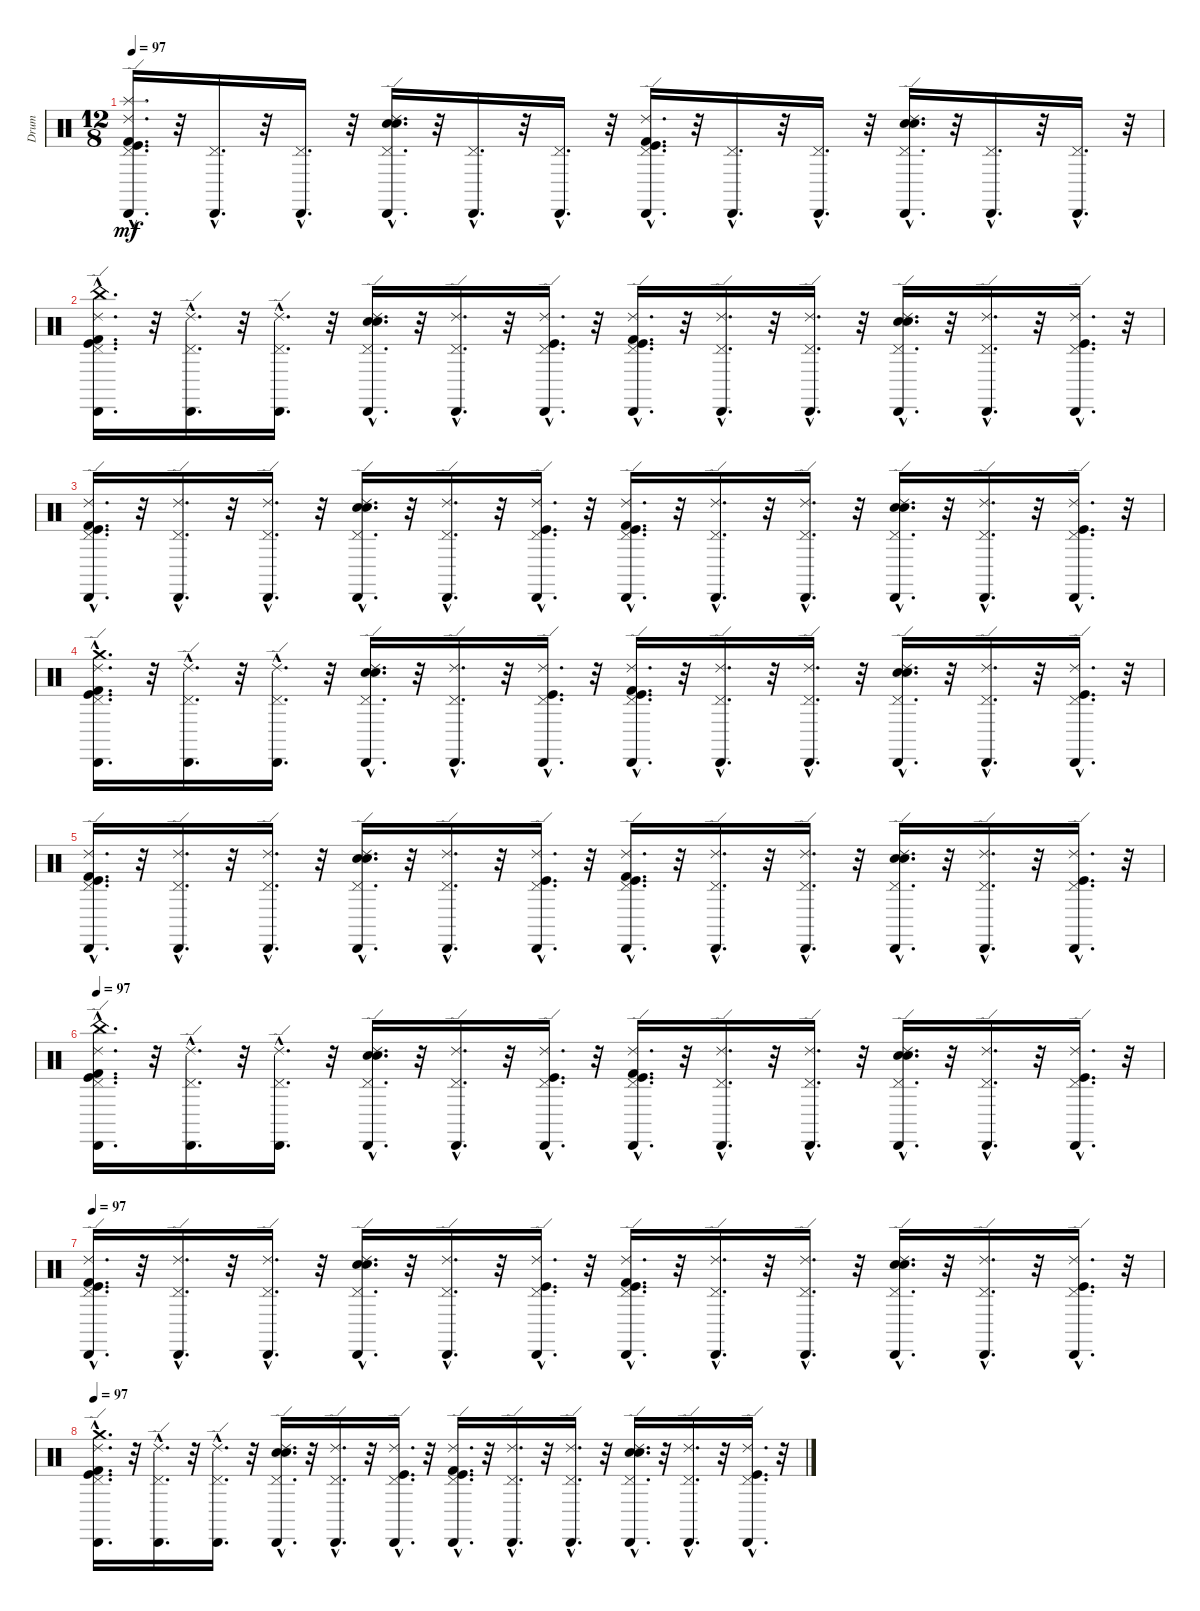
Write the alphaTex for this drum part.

\track ("Drum" "Drum") {instrument percussion}
\staff {score}
\articulation defaults
\ts (12 8)
\tempo 97
\clef neutral
\ks c
("Splash (hit)"{hac} "Pedal Hi-Hat (hit)"{hac} "Kick (hit)"{hac} "Cabasa (hit)"{hac} "Ride (edge) 2"{hac} "Kick (hit) 2"{hac}).16{d dy mf} r.32 ("Pedal Hi-Hat (hit)"{hac} "Cabasa (hit)"{hac}).16{d} r.32 ("Pedal Hi-Hat (hit)"{hac} "Cabasa (hit)"{hac}).16{d} r.32 ("Pedal Hi-Hat (hit)"{hac} "Snare (hit) 2"{hac} "Electric Snare (hit)"{hac} "Cabasa (hit)"{hac} "Ride (edge) 2"{hac}).16{d} r.32 ("Pedal Hi-Hat (hit)"{hac} "Cabasa (hit)"{hac}).16{d} r.32 ("Pedal Hi-Hat (hit)"{hac} "Cabasa (hit)"{hac}).16{d} r.32 ("Pedal Hi-Hat (hit)"{hac} "Kick (hit)"{hac} "Cabasa (hit)"{hac} "Ride (edge) 2"{hac} "Kick (hit) 2"{hac}).16{d} r.32 ("Pedal Hi-Hat (hit)"{hac} "Cabasa (hit)"{hac}).16{d} r.32 ("Pedal Hi-Hat (hit)"{hac} "Cabasa (hit)"{hac}).16{d} r.32 ("Pedal Hi-Hat (hit)"{hac} "Snare (hit) 2"{hac} "Electric Snare (hit)"{hac} "Cabasa (hit)"{hac} "Ride (edge) 2"{hac}).16{d} r.32 ("Pedal Hi-Hat (hit)"{hac} "Cabasa (hit)"{hac}).16{d} r.32 ("Pedal Hi-Hat (hit)"{hac} "Cabasa (hit)"{hac}).16{d} r.32 |
("Pedal Hi-Hat (hit)"{hac} "Kick (hit) 2"{hac} "Ride (edge) 2"{hac} "Cabasa (hit)"{hac} "Kick (hit)"{hac} "China (hit)"{hac}).16{d} r.32 ("Ride (edge) 2"{hac} "Cabasa (hit)"{hac} "Pedal Hi-Hat (hit)"{hac}).16{d} r.32 ("Cabasa (hit)"{hac} "Ride (edge) 2"{hac} "Pedal Hi-Hat (hit)"{hac}).16{d} r.32 ("Electric Snare (hit)"{hac} "Snare (hit) 2"{hac} "Cabasa (hit)"{hac} "Pedal Hi-Hat (hit)"{hac} "Ride (edge) 2"{hac}).16{d} r.32 ("Pedal Hi-Hat (hit)"{hac} "Ride (edge) 2"{hac} "Cabasa (hit)"{hac}).16{d} r.32 ("Cabasa (hit)"{hac} "Pedal Hi-Hat (hit)"{hac} "Ride (edge) 2"{hac} "Kick (hit)"{hac}).16{d} r.32 ("Cabasa (hit)"{hac} "Ride (edge) 2"{hac} "Kick (hit)"{hac} "Kick (hit) 2"{hac} "Pedal Hi-Hat (hit)"{hac}).16{d} r.32 ("Cabasa (hit)"{hac} "Ride (edge) 2"{hac} "Pedal Hi-Hat (hit)"{hac}).16{d} r.32 ("Cabasa (hit)"{hac} "Pedal Hi-Hat (hit)"{hac} "Ride (edge) 2"{hac}).16{d} r.32 ("Pedal Hi-Hat (hit)"{hac} "Snare (hit) 2"{hac} "Electric Snare (hit)"{hac} "Ride (edge) 2"{hac} "Cabasa (hit)"{hac}).16{d} r.32 ("Cabasa (hit)"{hac} "Pedal Hi-Hat (hit)"{hac} "Ride (edge) 2"{hac}).16{d} r.32 ("Ride (edge) 2"{hac} "Cabasa (hit)"{hac} "Pedal Hi-Hat (hit)"{hac} "Kick (hit)"{hac}).16{d} r.32 |
("Pedal Hi-Hat (hit)"{hac} "Kick (hit) 2"{hac} "Cabasa (hit)"{hac} "Kick (hit)"{hac} "Ride (edge) 2"{hac}).16{d} r.32 ("Pedal Hi-Hat (hit)"{hac} "Cabasa (hit)"{hac} "Ride (edge) 2"{hac}).16{d} r.32 ("Ride (edge) 2"{hac} "Cabasa (hit)"{hac} "Pedal Hi-Hat (hit)"{hac}).16{d} r.32 ("Electric Snare (hit)"{hac} "Cabasa (hit)"{hac} "Snare (hit) 2"{hac} "Ride (edge) 2"{hac} "Pedal Hi-Hat (hit)"{hac}).16{d} r.32 ("Pedal Hi-Hat (hit)"{hac} "Cabasa (hit)"{hac} "Ride (edge) 2"{hac}).16{d} r.32 ("Pedal Hi-Hat (hit)"{hac} "Ride (edge) 2"{hac} "Cabasa (hit)"{hac} "Kick (hit)"{hac}).16{d} r.32 ("Kick (hit)"{hac} "Cabasa (hit)"{hac} "Ride (edge) 2"{hac} "Pedal Hi-Hat (hit)"{hac} "Kick (hit) 2"{hac}).16{d} r.32 ("Pedal Hi-Hat (hit)"{hac} "Cabasa (hit)"{hac} "Ride (edge) 2"{hac}).16{d} r.32 ("Ride (edge) 2"{hac} "Pedal Hi-Hat (hit)"{hac} "Cabasa (hit)"{hac}).16{d} r.32 ("Cabasa (hit)"{hac} "Snare (hit) 2"{hac} "Electric Snare (hit)"{hac} "Pedal Hi-Hat (hit)"{hac} "Ride (edge) 2"{hac}).16{d} r.32 ("Ride (edge) 2"{hac} "Pedal Hi-Hat (hit)"{hac} "Cabasa (hit)"{hac}).16{d} r.32 ("Cabasa (hit)"{hac} "Pedal Hi-Hat (hit)"{hac} "Ride (edge) 2"{hac} "Kick (hit)"{hac}).16{d} r.32 |
("Kick (hit)"{hac} "Pedal Hi-Hat (hit)"{hac} "Kick (hit) 2"{hac} "Crash medium (hit)"{hac} "Ride (edge) 2"{hac} "Cabasa (hit)"{hac}).16{d} r.32 ("Ride (edge) 2"{hac} "Pedal Hi-Hat (hit)"{hac} "Cabasa (hit)"{hac}).16{d} r.32 ("Pedal Hi-Hat (hit)"{hac} "Ride (edge) 2"{hac} "Cabasa (hit)"{hac}).16{d} r.32 ("Pedal Hi-Hat (hit)"{hac} "Ride (edge) 2"{hac} "Snare (hit) 2"{hac} "Cabasa (hit)"{hac} "Electric Snare (hit)"{hac}).16{d} r.32 ("Ride (edge) 2"{hac} "Pedal Hi-Hat (hit)"{hac} "Cabasa (hit)"{hac}).16{d} r.32 ("Ride (edge) 2"{hac} "Cabasa (hit)"{hac} "Pedal Hi-Hat (hit)"{hac} "Kick (hit)"{hac}).16{d} r.32 ("Kick (hit) 2"{hac} "Cabasa (hit)"{hac} "Kick (hit)"{hac} "Pedal Hi-Hat (hit)"{hac} "Ride (edge) 2"{hac}).16{d} r.32 ("Pedal Hi-Hat (hit)"{hac} "Ride (edge) 2"{hac} "Cabasa (hit)"{hac}).16{d} r.32 ("Pedal Hi-Hat (hit)"{hac} "Cabasa (hit)"{hac} "Ride (edge) 2"{hac}).16{d} r.32 ("Ride (edge) 2"{hac} "Cabasa (hit)"{hac} "Electric Snare (hit)"{hac} "Snare (hit) 2"{hac} "Pedal Hi-Hat (hit)"{hac}).16{d} r.32 ("Cabasa (hit)"{hac} "Pedal Hi-Hat (hit)"{hac} "Ride (edge) 2"{hac}).16{d} r.32 ("Cabasa (hit)"{hac} "Pedal Hi-Hat (hit)"{hac} "Ride (edge) 2"{hac} "Kick (hit)"{hac}).16{d} r.32 |
("Ride (edge) 2"{hac} "Kick (hit)"{hac} "Pedal Hi-Hat (hit)"{hac} "Cabasa (hit)"{hac} "Kick (hit) 2"{hac}).16{d} r.32 ("Pedal Hi-Hat (hit)"{hac} "Ride (edge) 2"{hac} "Cabasa (hit)"{hac}).16{d} r.32 ("Pedal Hi-Hat (hit)"{hac} "Cabasa (hit)"{hac} "Ride (edge) 2"{hac}).16{d} r.32 ("Snare (hit) 2"{hac} "Electric Snare (hit)"{hac} "Cabasa (hit)"{hac} "Ride (edge) 2"{hac} "Pedal Hi-Hat (hit)"{hac}).16{d} r.32 ("Pedal Hi-Hat (hit)"{hac} "Ride (edge) 2"{hac} "Cabasa (hit)"{hac}).16{d} r.32 ("Cabasa (hit)"{hac} "Kick (hit)"{hac} "Pedal Hi-Hat (hit)"{hac} "Ride (edge) 2"{hac}).16{d} r.32 ("Pedal Hi-Hat (hit)"{hac} "Cabasa (hit)"{hac} "Ride (edge) 2"{hac} "Kick (hit)"{hac} "Kick (hit) 2"{hac}).16{d} r.32 ("Pedal Hi-Hat (hit)"{hac} "Ride (edge) 2"{hac} "Cabasa (hit)"{hac}).16{d} r.32 ("Cabasa (hit)"{hac} "Pedal Hi-Hat (hit)"{hac} "Ride (edge) 2"{hac}).16{d} r.32 ("Electric Snare (hit)"{hac} "Snare (hit) 2"{hac} "Cabasa (hit)"{hac} "Ride (edge) 2"{hac} "Pedal Hi-Hat (hit)"{hac}).16{d} r.32 ("Cabasa (hit)"{hac} "Pedal Hi-Hat (hit)"{hac} "Ride (edge) 2"{hac}).16{d} r.32 ("Pedal Hi-Hat (hit)"{hac} "Cabasa (hit)"{hac} "Kick (hit)"{hac} "Ride (edge) 2"{hac}).16{d} r.32 |
\tempo 97
("Kick (hit)"{hac} "Pedal Hi-Hat (hit)"{hac} "Cabasa (hit)"{hac} "Ride (edge) 2"{hac} "Kick (hit) 2"{hac} "China (hit)"{hac}).16{d} r.32 ("Cabasa (hit)"{hac} "Pedal Hi-Hat (hit)"{hac} "Ride (edge) 2"{hac}).16{d} r.32 ("Pedal Hi-Hat (hit)"{hac} "Cabasa (hit)"{hac} "Ride (edge) 2"{hac}).16{d} r.32 ("Pedal Hi-Hat (hit)"{hac} "Electric Snare (hit)"{hac} "Snare (hit) 2"{hac} "Cabasa (hit)"{hac} "Ride (edge) 2"{hac}).16{d} r.32 ("Cabasa (hit)"{hac} "Pedal Hi-Hat (hit)"{hac} "Ride (edge) 2"{hac}).16{d} r.32 ("Cabasa (hit)"{hac} "Pedal Hi-Hat (hit)"{hac} "Ride (edge) 2"{hac} "Kick (hit)"{hac}).16{d} r.32 ("Kick (hit) 2"{hac} "Kick (hit)"{hac} "Ride (edge) 2"{hac} "Pedal Hi-Hat (hit)"{hac} "Cabasa (hit)"{hac}).16{d} r.32 ("Cabasa (hit)"{hac} "Pedal Hi-Hat (hit)"{hac} "Ride (edge) 2"{hac}).16{d} r.32 ("Cabasa (hit)"{hac} "Pedal Hi-Hat (hit)"{hac} "Ride (edge) 2"{hac}).16{d} r.32 ("Ride (edge) 2"{hac} "Cabasa (hit)"{hac} "Pedal Hi-Hat (hit)"{hac} "Electric Snare (hit)"{hac} "Snare (hit) 2"{hac}).16{d} r.32 ("Cabasa (hit)"{hac} "Pedal Hi-Hat (hit)"{hac} "Ride (edge) 2"{hac}).16{d} r.32 ("Cabasa (hit)"{hac} "Pedal Hi-Hat (hit)"{hac} "Ride (edge) 2"{hac} "Kick (hit)"{hac}).16{d} r.32 |
\tempo 97
("Kick (hit) 2"{hac} "Ride (edge) 2"{hac} "Cabasa (hit)"{hac} "Pedal Hi-Hat (hit)"{hac} "Kick (hit)"{hac}).16{d} r.32 ("Ride (edge) 2"{hac} "Pedal Hi-Hat (hit)"{hac} "Cabasa (hit)"{hac}).16{d} r.32 ("Ride (edge) 2"{hac} "Cabasa (hit)"{hac} "Pedal Hi-Hat (hit)"{hac}).16{d} r.32 ("Ride (edge) 2"{hac} "Cabasa (hit)"{hac} "Snare (hit) 2"{hac} "Electric Snare (hit)"{hac} "Pedal Hi-Hat (hit)"{hac}).16{d} r.32 ("Ride (edge) 2"{hac} "Pedal Hi-Hat (hit)"{hac} "Cabasa (hit)"{hac}).16{d} r.32 ("Ride (edge) 2"{hac} "Pedal Hi-Hat (hit)"{hac} "Cabasa (hit)"{hac} "Kick (hit)"{hac}).16{d} r.32 ("Cabasa (hit)"{hac} "Pedal Hi-Hat (hit)"{hac} "Ride (edge) 2"{hac} "Kick (hit)"{hac} "Kick (hit) 2"{hac}).16{d} r.32 ("Ride (edge) 2"{hac} "Pedal Hi-Hat (hit)"{hac} "Cabasa (hit)"{hac}).16{d} r.32 ("Ride (edge) 2"{hac} "Pedal Hi-Hat (hit)"{hac} "Cabasa (hit)"{hac}).16{d} r.32 ("Snare (hit) 2"{hac} "Electric Snare (hit)"{hac} "Pedal Hi-Hat (hit)"{hac} "Cabasa (hit)"{hac} "Ride (edge) 2"{hac}).16{d} r.32 ("Ride (edge) 2"{hac} "Pedal Hi-Hat (hit)"{hac} "Cabasa (hit)"{hac}).16{d} r.32 ("Ride (edge) 2"{hac} "Pedal Hi-Hat (hit)"{hac} "Cabasa (hit)"{hac} "Kick (hit)"{hac}).16{d} r.32 |
\tempo 97
("Crash medium (hit)"{hac} "Kick (hit) 2"{hac} "Ride (edge) 2"{hac} "Cabasa (hit)"{hac} "Pedal Hi-Hat (hit)"{hac} "Kick (hit)"{hac}).16{d} r.32 ("Ride (edge) 2"{hac} "Pedal Hi-Hat (hit)"{hac} "Cabasa (hit)"{hac}).16{d} r.32 ("Ride (edge) 2"{hac} "Cabasa (hit)"{hac} "Pedal Hi-Hat (hit)"{hac}).16{d} r.32 ("Ride (edge) 2"{hac} "Cabasa (hit)"{hac} "Snare (hit) 2"{hac} "Electric Snare (hit)"{hac} "Pedal Hi-Hat (hit)"{hac}).16{d} r.32 ("Ride (edge) 2"{hac} "Pedal Hi-Hat (hit)"{hac} "Cabasa (hit)"{hac}).16{d} r.32 ("Kick (hit)"{hac} "Ride (edge) 2"{hac} "Pedal Hi-Hat (hit)"{hac} "Cabasa (hit)"{hac}).16{d} r.32 ("Cabasa (hit)"{hac} "Pedal Hi-Hat (hit)"{hac} "Ride (edge) 2"{hac} "Kick (hit)"{hac} "Kick (hit) 2"{hac}).16{d} r.32 ("Ride (edge) 2"{hac} "Pedal Hi-Hat (hit)"{hac} "Cabasa (hit)"{hac}).16{d} r.32 ("Ride (edge) 2"{hac} "Pedal Hi-Hat (hit)"{hac} "Cabasa (hit)"{hac}).16{d} r.32 ("Snare (hit) 2"{hac} "Electric Snare (hit)"{hac} "Pedal Hi-Hat (hit)"{hac} "Cabasa (hit)"{hac} "Ride (edge) 2"{hac}).16{d} r.32 ("Ride (edge) 2"{hac} "Pedal Hi-Hat (hit)"{hac} "Cabasa (hit)"{hac}).16{d} r.32 ("Kick (hit)"{hac} "Ride (edge) 2"{hac} "Pedal Hi-Hat (hit)"{hac} "Cabasa (hit)"{hac}).16{d} r.32
